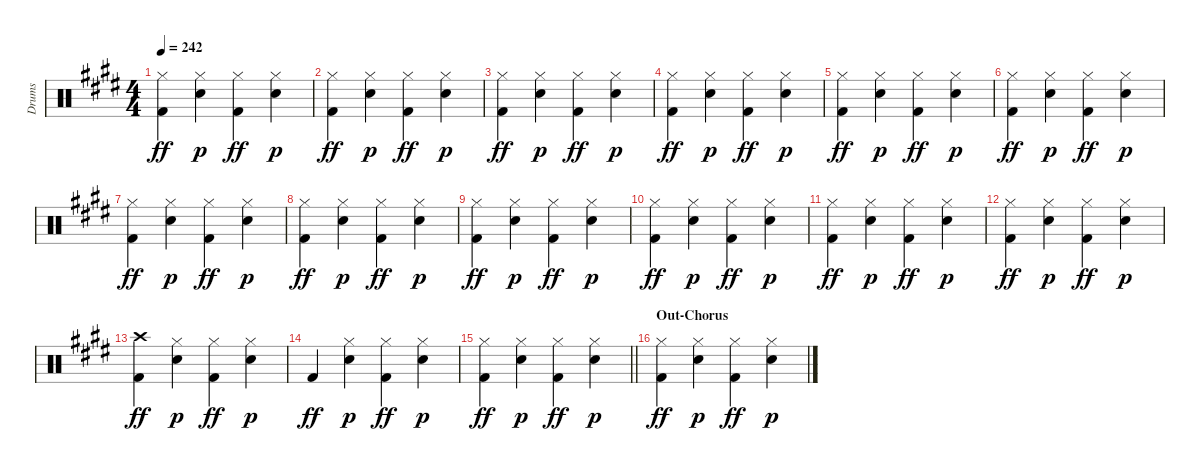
\track ("Drums" "Drums") {instrument percussion}
\staff {score}
\articulation defaults
\ts (4 4)
\tempo 242
\clef neutral
\ks e
("Hi-Hat (closed)" "Kick (hit) 2").4{dy ff} ("Hi-Hat (closed)" "Electric Snare (hit)").4{dy p} ("Hi-Hat (closed)" "Kick (hit) 2").4{dy ff} ("Hi-Hat (closed)" "Electric Snare (hit)").4{dy p} |
("Hi-Hat (closed)" "Kick (hit) 2").4{dy ff} ("Hi-Hat (closed)" "Electric Snare (hit)").4{dy p} ("Hi-Hat (closed)" "Kick (hit) 2").4{dy ff} ("Hi-Hat (closed)" "Electric Snare (hit)").4{dy p} |
("Hi-Hat (closed)" "Kick (hit) 2").4{dy ff} ("Hi-Hat (closed)" "Electric Snare (hit)").4{dy p} ("Hi-Hat (closed)" "Kick (hit) 2").4{dy ff} ("Hi-Hat (closed)" "Electric Snare (hit)").4{dy p} |
("Hi-Hat (closed)" "Kick (hit) 2").4{dy ff} ("Hi-Hat (closed)" "Electric Snare (hit)").4{dy p} ("Hi-Hat (closed)" "Kick (hit) 2").4{dy ff} ("Hi-Hat (closed)" "Electric Snare (hit)").4{dy p} |
("Hi-Hat (closed)" "Kick (hit) 2").4{dy ff} ("Hi-Hat (closed)" "Electric Snare (hit)").4{dy p} ("Hi-Hat (closed)" "Kick (hit) 2").4{dy ff} ("Hi-Hat (closed)" "Electric Snare (hit)").4{dy p} |
("Hi-Hat (closed)" "Kick (hit) 2").4{dy ff} ("Hi-Hat (closed)" "Electric Snare (hit)").4{dy p} ("Hi-Hat (closed)" "Kick (hit) 2").4{dy ff} ("Hi-Hat (closed)" "Electric Snare (hit)").4{dy p} |
("Hi-Hat (closed)" "Kick (hit) 2").4{dy ff} ("Hi-Hat (closed)" "Electric Snare (hit)").4{dy p} ("Hi-Hat (closed)" "Kick (hit) 2").4{dy ff} ("Hi-Hat (closed)" "Electric Snare (hit)").4{dy p} |
("Hi-Hat (closed)" "Kick (hit) 2").4{dy ff} ("Hi-Hat (closed)" "Electric Snare (hit)").4{dy p} ("Hi-Hat (closed)" "Kick (hit) 2").4{dy ff} ("Hi-Hat (closed)" "Electric Snare (hit)").4{dy p} |
("Hi-Hat (closed)" "Kick (hit) 2").4{dy ff} ("Hi-Hat (closed)" "Electric Snare (hit)").4{dy p} ("Hi-Hat (closed)" "Kick (hit) 2").4{dy ff} ("Hi-Hat (closed)" "Electric Snare (hit)").4{dy p} |
("Hi-Hat (closed)" "Kick (hit) 2").4{dy ff} ("Hi-Hat (closed)" "Electric Snare (hit)").4{dy p} ("Hi-Hat (closed)" "Kick (hit) 2").4{dy ff} ("Hi-Hat (closed)" "Electric Snare (hit)").4{dy p} |
("Hi-Hat (closed)" "Kick (hit) 2").4{dy ff} ("Hi-Hat (closed)" "Electric Snare (hit)").4{dy p} ("Hi-Hat (closed)" "Kick (hit) 2").4{dy ff} ("Hi-Hat (closed)" "Electric Snare (hit)").4{dy p} |
("Hi-Hat (closed)" "Kick (hit) 2").4{dy ff} ("Hi-Hat (closed)" "Electric Snare (hit)").4{dy p} ("Hi-Hat (closed)" "Kick (hit) 2").4{dy ff} ("Hi-Hat (closed)" "Electric Snare (hit)").4{dy p} |
("Crash high (hit)" "Kick (hit) 2").4{dy ff} ("Hi-Hat (closed)" "Electric Snare (hit)").4{dy p} ("Hi-Hat (closed)" "Kick (hit) 2").4{dy ff} ("Hi-Hat (closed)" "Electric Snare (hit)").4{dy p} |
"Kick (hit) 2".4{dy ff} ("Hi-Hat (closed)" "Electric Snare (hit)").4{dy p} ("Hi-Hat (closed)" "Kick (hit) 2").4{dy ff} ("Hi-Hat (closed)" "Electric Snare (hit)").4{dy p} |
\barLineRight lightlight
("Hi-Hat (closed)" "Kick (hit) 2").4{dy ff} ("Hi-Hat (closed)" "Electric Snare (hit)").4{dy p} ("Hi-Hat (closed)" "Kick (hit) 2").4{dy ff} ("Hi-Hat (closed)" "Electric Snare (hit)").4{dy p} |
\section ("" "Out-Chorus")
("Hi-Hat (closed)" "Kick (hit) 2").4{dy ff} ("Hi-Hat (closed)" "Electric Snare (hit)").4{dy p} ("Hi-Hat (closed)" "Kick (hit) 2").4{dy ff} ("Hi-Hat (closed)" "Electric Snare (hit)").4{dy p}
